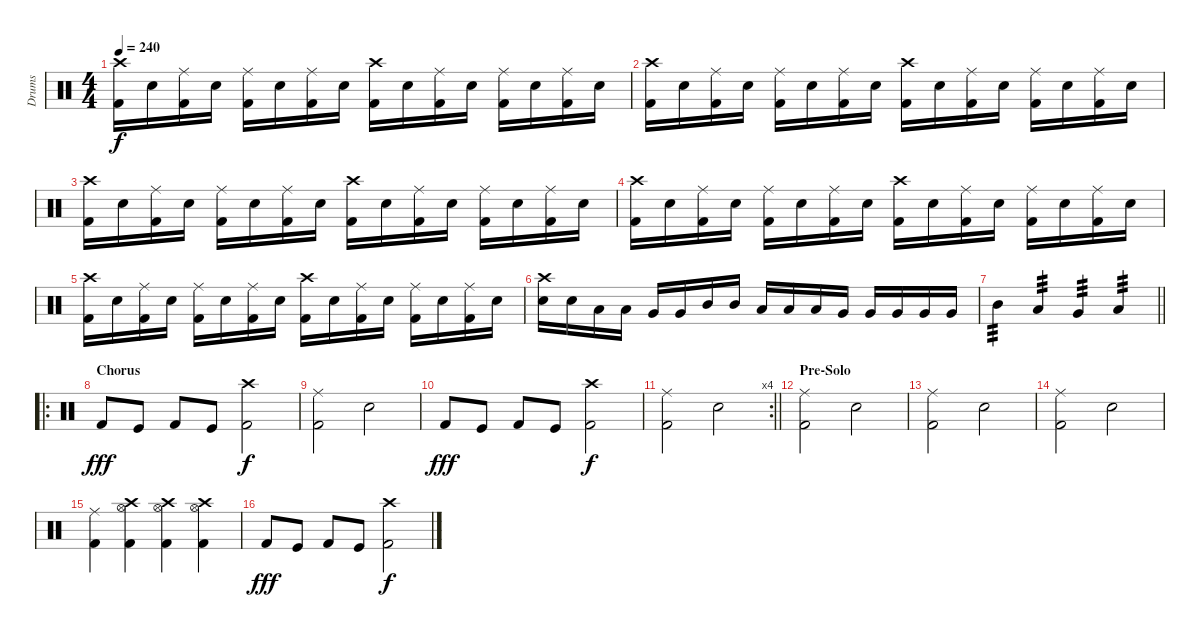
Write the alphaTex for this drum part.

\track ("Drums" "Drums") {instrument percussion}
\staff {score}
\articulation defaults
\ts (4 4)
\tempo 240
\clef neutral
\ks c
("Crash high (hit)" "Kick (hit) 2").16{dy f} "Electric Snare (hit)".16 ("Ride (middle)" "Kick (hit) 2").16 "Electric Snare (hit)".16 ("Ride (middle)" "Kick (hit) 2").16 "Electric Snare (hit)".16 ("Ride (middle)" "Kick (hit) 2").16 "Electric Snare (hit)".16 ("Crash high (hit)" "Kick (hit) 2").16 "Electric Snare (hit)".16 ("Ride (middle)" "Kick (hit) 2").16 "Electric Snare (hit)".16 ("Ride (middle)" "Kick (hit) 2").16 "Electric Snare (hit)".16 ("Ride (middle)" "Kick (hit) 2").16 "Electric Snare (hit)".16 |
("Crash high (hit)" "Kick (hit) 2").16 "Electric Snare (hit)".16 ("Ride (middle)" "Kick (hit) 2").16 "Electric Snare (hit)".16 ("Ride (middle)" "Kick (hit) 2").16 "Electric Snare (hit)".16 ("Ride (middle)" "Kick (hit) 2").16 "Electric Snare (hit)".16 ("Crash high (hit)" "Kick (hit) 2").16 "Electric Snare (hit)".16 ("Ride (middle)" "Kick (hit) 2").16 "Electric Snare (hit)".16 ("Ride (middle)" "Kick (hit) 2").16 "Electric Snare (hit)".16 ("Ride (middle)" "Kick (hit) 2").16 "Electric Snare (hit)".16 |
("Crash high (hit)" "Kick (hit) 2").16 "Electric Snare (hit)".16 ("Ride (middle)" "Kick (hit) 2").16 "Electric Snare (hit)".16 ("Ride (middle)" "Kick (hit) 2").16 "Electric Snare (hit)".16 ("Ride (middle)" "Kick (hit) 2").16 "Electric Snare (hit)".16 ("Crash high (hit)" "Kick (hit) 2").16 "Electric Snare (hit)".16 ("Ride (middle)" "Kick (hit) 2").16 "Electric Snare (hit)".16 ("Ride (middle)" "Kick (hit) 2").16 "Electric Snare (hit)".16 ("Ride (middle)" "Kick (hit) 2").16 "Electric Snare (hit)".16 |
("Crash high (hit)" "Kick (hit) 2").16 "Electric Snare (hit)".16 ("Ride (middle)" "Kick (hit) 2").16 "Electric Snare (hit)".16 ("Ride (middle)" "Kick (hit) 2").16 "Electric Snare (hit)".16 ("Ride (middle)" "Kick (hit) 2").16 "Electric Snare (hit)".16 ("Crash high (hit)" "Kick (hit) 2").16 "Electric Snare (hit)".16 ("Ride (middle)" "Kick (hit) 2").16 "Electric Snare (hit)".16 ("Ride (middle)" "Kick (hit) 2").16 "Electric Snare (hit)".16 ("Ride (middle)" "Kick (hit) 2").16 "Electric Snare (hit)".16 |
("Crash high (hit)" "Kick (hit) 2").16 "Electric Snare (hit)".16 ("Ride (middle)" "Kick (hit) 2").16 "Electric Snare (hit)".16 ("Ride (middle)" "Kick (hit) 2").16 "Electric Snare (hit)".16 ("Ride (middle)" "Kick (hit) 2").16 "Electric Snare (hit)".16 ("Crash high (hit)" "Kick (hit) 2").16 "Electric Snare (hit)".16 ("Ride (middle)" "Kick (hit) 2").16 "Electric Snare (hit)".16 ("Ride (middle)" "Kick (hit) 2").16 "Electric Snare (hit)".16 ("Ride (middle)" "Kick (hit) 2").16 "Electric Snare (hit)".16 |
("Crash high (hit)" "Snare (hit) 2").16 "Snare (hit) 2".16 "Low Tom (hit)".16 "Low Tom (hit)".16 "Very Low Tom (hit)".16 "Very Low Tom (hit)".16 "Mid Tom (hit)".16 "Mid Tom (hit)".16 "Low Tom (hit)".16 "Low Tom (hit)".16 "Low Tom (hit)".16 "Very Low Tom (hit)".16 "Very Low Tom (hit)".16 "Very Low Tom (hit)".16 "Very Low Tom (hit)".16 "Very Low Tom (hit)".16 |
\barLineRight lightlight "Mid Tom (hit)".4{tp 3} "Low Tom (hit)".4{tp 3} "Very Low Tom (hit)".4{tp 3} "Low Floor Tom (hit)".4{tp 3}
|
\ro
\section ("" "Chorus")
"Kick (hit) 2".8{dy fff} "Kick (hit)".8 "Kick (hit) 2".8 "Kick (hit)".8 ("Crash high (hit)" "Kick (hit) 2").2{dy f} |
("Ride (middle)" "Kick (hit) 2").2 "Snare (hit) 2".2 |
"Kick (hit) 2".8{dy fff} "Kick (hit)".8 "Kick (hit) 2".8 "Kick (hit)".8 ("Crash high (hit)" "Kick (hit) 2").2{dy f} |
\rc 4
\barLineRight lightlight
("Ride (middle)" "Kick (hit) 2").2 "Snare (hit) 2".2 |
\section ("" "Pre-Solo")
("Ride (middle)" "Kick (hit) 2").2 "Snare (hit) 2".2 |
("Ride (middle)" "Kick (hit) 2").2 "Snare (hit) 2".2 |
("Ride (middle)" "Kick (hit) 2").2 "Snare (hit) 2".2 |
("Ride (middle)" "Kick (hit) 2").4 ("Crash high (hit)" "Hi-Hat (open)" "Kick (hit) 2").4 ("Crash high (hit)" "Hi-Hat (open)" "Kick (hit) 2").4 ("Crash high (hit)" "Hi-Hat (open)" "Kick (hit) 2").4 |
"Kick (hit) 2".8{dy fff} "Kick (hit)".8 "Kick (hit) 2".8 "Kick (hit)".8 ("Crash high (hit)" "Kick (hit) 2").2{dy f}
